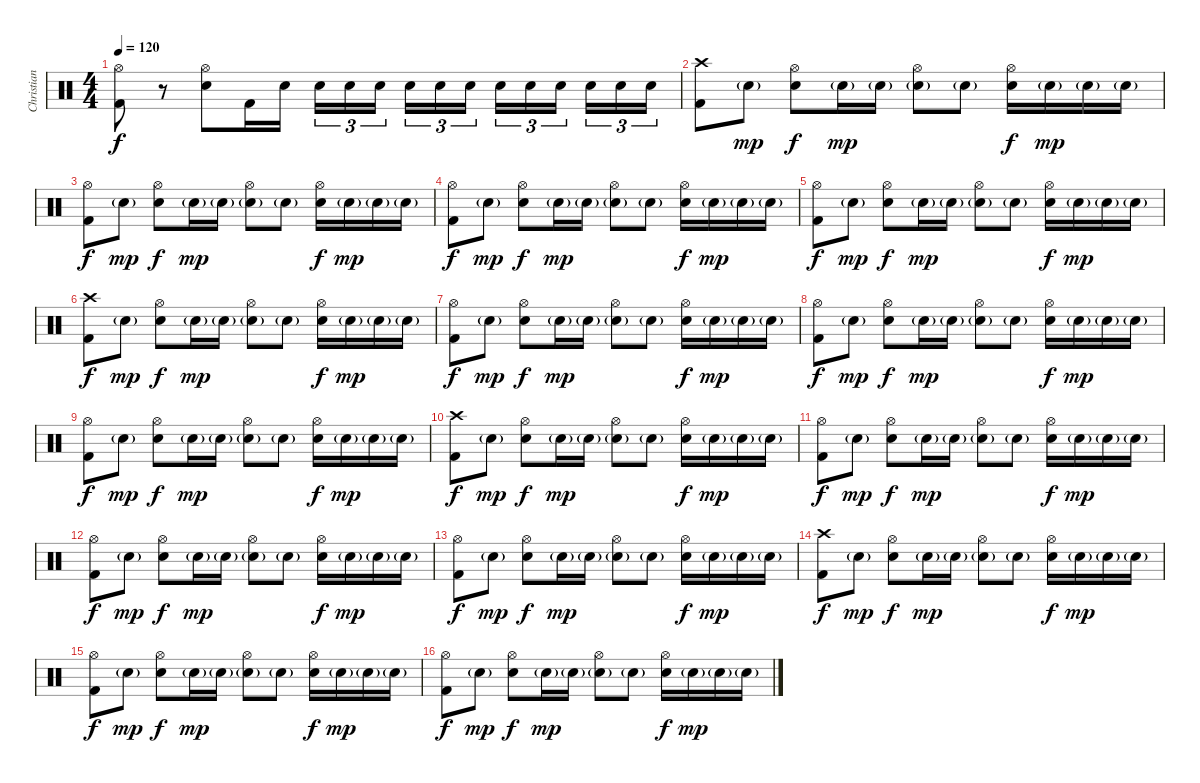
\track ("Christian" "Christian") {instrument percussion}
\staff {score}
\articulation defaults
\ts (4 4)
\tempo 120
\clef neutral
\ks c
("Hi-Hat (open)" "Kick (hit) 2").8{dy f} r.8 ("Hi-Hat (open)" "Snare (hit) 2").8 "Kick (hit) 2".16 "Snare (hit) 2".16 "Snare (hit) 2".16{tu (3 2)} "Snare (hit) 2".16{tu (3 2)} "Snare (hit) 2".16{tu (3 2)} "Snare (hit) 2".16{tu (3 2)} "Snare (hit) 2".16{tu (3 2)} "Snare (hit) 2".16{tu (3 2)} "Snare (hit) 2".16{tu (3 2)} "Snare (hit) 2".16{tu (3 2)} "Snare (hit) 2".16{tu (3 2)} "Snare (hit) 2".16{tu (3 2)} "Snare (hit) 2".16{tu (3 2)} "Snare (hit) 2".16{tu (3 2)} |
("Crash high (hit)" "Kick (hit) 2").8 "Snare (hit) 2"{g}.8{dy mp} ("Hi-Hat (open)" "Snare (hit) 2").8{dy f} "Snare (hit) 2"{g}.16{dy mp} "Snare (hit) 2"{g}.16 ("Hi-Hat (open)" "Snare (hit) 2"{g}).8 "Snare (hit) 2"{g}.8 ("Hi-Hat (open)" "Snare (hit) 2").16{dy f} "Snare (hit) 2"{g}.16{dy mp} "Snare (hit) 2"{g}.16 "Snare (hit) 2"{g}.16 |
("Hi-Hat (open)" "Kick (hit) 2").8{dy f} "Snare (hit) 2"{g}.8{dy mp} ("Hi-Hat (open)" "Snare (hit) 2").8{dy f} "Snare (hit) 2"{g}.16{dy mp} "Snare (hit) 2"{g}.16 ("Hi-Hat (open)" "Snare (hit) 2"{g}).8 "Snare (hit) 2"{g}.8 ("Hi-Hat (open)" "Snare (hit) 2").16{dy f} "Snare (hit) 2"{g}.16{dy mp} "Snare (hit) 2"{g}.16 "Snare (hit) 2"{g}.16 |
("Hi-Hat (open)" "Kick (hit) 2").8{dy f} "Snare (hit) 2"{g}.8{dy mp} ("Hi-Hat (open)" "Snare (hit) 2").8{dy f} "Snare (hit) 2"{g}.16{dy mp} "Snare (hit) 2"{g}.16 ("Hi-Hat (open)" "Snare (hit) 2"{g}).8 "Snare (hit) 2"{g}.8 ("Hi-Hat (open)" "Snare (hit) 2").16{dy f} "Snare (hit) 2"{g}.16{dy mp} "Snare (hit) 2"{g}.16 "Snare (hit) 2"{g}.16 |
("Hi-Hat (open)" "Kick (hit) 2").8{dy f} "Snare (hit) 2"{g}.8{dy mp} ("Hi-Hat (open)" "Snare (hit) 2").8{dy f} "Snare (hit) 2"{g}.16{dy mp} "Snare (hit) 2"{g}.16 ("Hi-Hat (open)" "Snare (hit) 2"{g}).8 "Snare (hit) 2"{g}.8 ("Hi-Hat (open)" "Snare (hit) 2").16{dy f} "Snare (hit) 2"{g}.16{dy mp} "Snare (hit) 2"{g}.16 "Snare (hit) 2"{g}.16 |
("Crash high (hit)" "Kick (hit) 2").8{dy f volume 8} "Snare (hit) 2"{g}.8{dy mp} ("Hi-Hat (open)" "Snare (hit) 2").8{dy f} "Snare (hit) 2"{g}.16{dy mp} "Snare (hit) 2"{g}.16 ("Hi-Hat (open)" "Snare (hit) 2"{g}).8 "Snare (hit) 2"{g}.8 ("Hi-Hat (open)" "Snare (hit) 2").16{dy f} "Snare (hit) 2"{g}.16{dy mp} "Snare (hit) 2"{g}.16 "Snare (hit) 2"{g}.16 |
("Hi-Hat (open)" "Kick (hit) 2").8{dy f} "Snare (hit) 2"{g}.8{dy mp} ("Hi-Hat (open)" "Snare (hit) 2").8{dy f} "Snare (hit) 2"{g}.16{dy mp} "Snare (hit) 2"{g}.16 ("Hi-Hat (open)" "Snare (hit) 2"{g}).8 "Snare (hit) 2"{g}.8 ("Hi-Hat (open)" "Snare (hit) 2").16{dy f} "Snare (hit) 2"{g}.16{dy mp} "Snare (hit) 2"{g}.16 "Snare (hit) 2"{g}.16 |
("Hi-Hat (open)" "Kick (hit) 2").8{dy f} "Snare (hit) 2"{g}.8{dy mp} ("Hi-Hat (open)" "Snare (hit) 2").8{dy f} "Snare (hit) 2"{g}.16{dy mp} "Snare (hit) 2"{g}.16 ("Hi-Hat (open)" "Snare (hit) 2"{g}).8 "Snare (hit) 2"{g}.8 ("Hi-Hat (open)" "Snare (hit) 2").16{dy f} "Snare (hit) 2"{g}.16{dy mp} "Snare (hit) 2"{g}.16 "Snare (hit) 2"{g}.16 |
("Hi-Hat (open)" "Kick (hit) 2").8{dy f} "Snare (hit) 2"{g}.8{dy mp} ("Hi-Hat (open)" "Snare (hit) 2").8{dy f} "Snare (hit) 2"{g}.16{dy mp} "Snare (hit) 2"{g}.16 ("Hi-Hat (open)" "Snare (hit) 2"{g}).8 "Snare (hit) 2"{g}.8 ("Hi-Hat (open)" "Snare (hit) 2").16{dy f} "Snare (hit) 2"{g}.16{dy mp} "Snare (hit) 2"{g}.16 "Snare (hit) 2"{g}.16 |
("Crash high (hit)" "Kick (hit) 2").8{dy f volume 6} "Snare (hit) 2"{g}.8{dy mp} ("Hi-Hat (open)" "Snare (hit) 2").8{dy f} "Snare (hit) 2"{g}.16{dy mp} "Snare (hit) 2"{g}.16 ("Hi-Hat (open)" "Snare (hit) 2"{g}).8 "Snare (hit) 2"{g}.8 ("Hi-Hat (open)" "Snare (hit) 2").16{dy f} "Snare (hit) 2"{g}.16{dy mp} "Snare (hit) 2"{g}.16 "Snare (hit) 2"{g}.16 |
("Hi-Hat (open)" "Kick (hit) 2").8{dy f} "Snare (hit) 2"{g}.8{dy mp} ("Hi-Hat (open)" "Snare (hit) 2").8{dy f} "Snare (hit) 2"{g}.16{dy mp} "Snare (hit) 2"{g}.16 ("Hi-Hat (open)" "Snare (hit) 2"{g}).8 "Snare (hit) 2"{g}.8 ("Hi-Hat (open)" "Snare (hit) 2").16{dy f} "Snare (hit) 2"{g}.16{dy mp} "Snare (hit) 2"{g}.16 "Snare (hit) 2"{g}.16 |
("Hi-Hat (open)" "Kick (hit) 2").8{dy f} "Snare (hit) 2"{g}.8{dy mp} ("Hi-Hat (open)" "Snare (hit) 2").8{dy f} "Snare (hit) 2"{g}.16{dy mp} "Snare (hit) 2"{g}.16 ("Hi-Hat (open)" "Snare (hit) 2"{g}).8 "Snare (hit) 2"{g}.8 ("Hi-Hat (open)" "Snare (hit) 2").16{dy f} "Snare (hit) 2"{g}.16{dy mp} "Snare (hit) 2"{g}.16 "Snare (hit) 2"{g}.16 |
("Hi-Hat (open)" "Kick (hit) 2").8{dy f} "Snare (hit) 2"{g}.8{dy mp} ("Hi-Hat (open)" "Snare (hit) 2").8{dy f} "Snare (hit) 2"{g}.16{dy mp} "Snare (hit) 2"{g}.16 ("Hi-Hat (open)" "Snare (hit) 2"{g}).8 "Snare (hit) 2"{g}.8 ("Hi-Hat (open)" "Snare (hit) 2").16{dy f} "Snare (hit) 2"{g}.16{dy mp} "Snare (hit) 2"{g}.16 "Snare (hit) 2"{g}.16 |
("Crash high (hit)" "Kick (hit) 2").8{dy f volume 4} "Snare (hit) 2"{g}.8{dy mp} ("Hi-Hat (open)" "Snare (hit) 2").8{dy f} "Snare (hit) 2"{g}.16{dy mp} "Snare (hit) 2"{g}.16 ("Hi-Hat (open)" "Snare (hit) 2"{g}).8 "Snare (hit) 2"{g}.8 ("Hi-Hat (open)" "Snare (hit) 2").16{dy f} "Snare (hit) 2"{g}.16{dy mp} "Snare (hit) 2"{g}.16 "Snare (hit) 2"{g}.16 |
("Hi-Hat (open)" "Kick (hit) 2").8{dy f} "Snare (hit) 2"{g}.8{dy mp} ("Hi-Hat (open)" "Snare (hit) 2").8{dy f} "Snare (hit) 2"{g}.16{dy mp} "Snare (hit) 2"{g}.16 ("Hi-Hat (open)" "Snare (hit) 2"{g}).8 "Snare (hit) 2"{g}.8 ("Hi-Hat (open)" "Snare (hit) 2").16{dy f} "Snare (hit) 2"{g}.16{dy mp} "Snare (hit) 2"{g}.16 "Snare (hit) 2"{g}.16 |
("Hi-Hat (open)" "Kick (hit) 2").8{dy f} "Snare (hit) 2"{g}.8{dy mp} ("Hi-Hat (open)" "Snare (hit) 2").8{dy f} "Snare (hit) 2"{g}.16{dy mp} "Snare (hit) 2"{g}.16 ("Hi-Hat (open)" "Snare (hit) 2"{g}).8 "Snare (hit) 2"{g}.8 ("Hi-Hat (open)" "Snare (hit) 2").16{dy f} "Snare (hit) 2"{g}.16{dy mp} "Snare (hit) 2"{g}.16 "Snare (hit) 2"{g}.16
